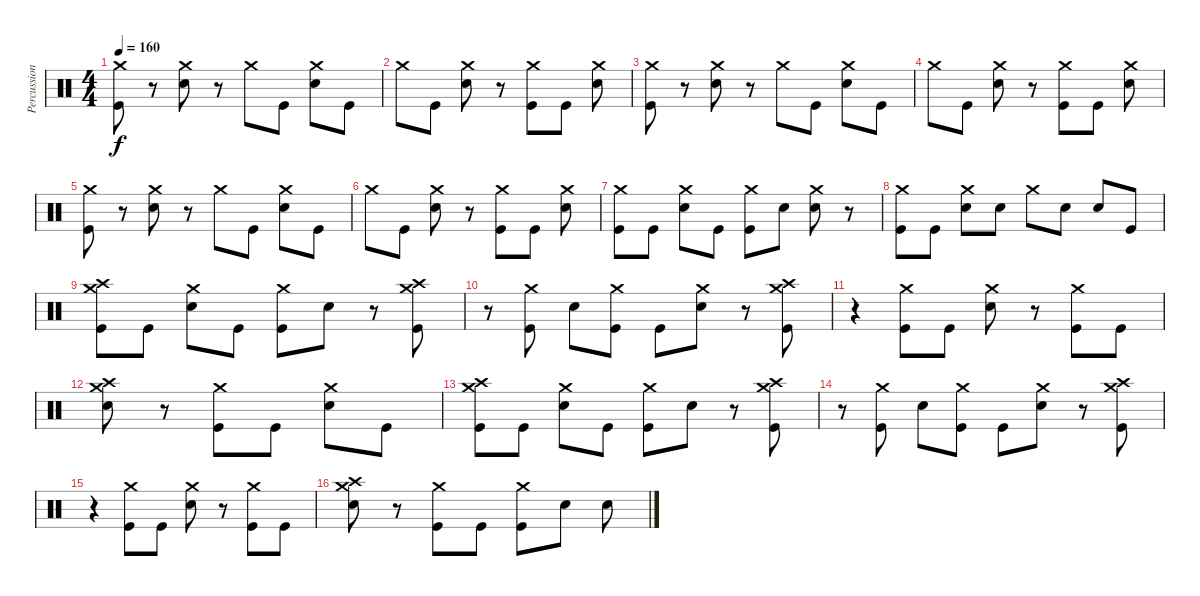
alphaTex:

\track ("Percussion" "Percussion") {instrument percussion}
\staff {score}
\articulation defaults
\ts (4 4)
\tempo 160
\clef neutral
\ks c
("Crash medium (hit)" "Kick (hit)").8{dy f} r.8 ("Crash medium (hit)" "Electric Snare (hit)").8 r.8 "Crash medium (hit)".8 "Kick (hit)".8 ("Crash medium (hit)" "Electric Snare (hit)").8 "Kick (hit)".8 |
"Crash medium (hit)".8 "Kick (hit)".8 ("Crash medium (hit)" "Electric Snare (hit)").8 r.8 ("Crash medium (hit)" "Kick (hit)").8 "Kick (hit)".8 ("Crash medium (hit)" "Electric Snare (hit)").8 |
("Crash medium (hit)" "Kick (hit)").8 r.8 ("Crash medium (hit)" "Electric Snare (hit)").8 r.8 "Crash medium (hit)".8 "Kick (hit)".8 ("Crash medium (hit)" "Electric Snare (hit)").8 "Kick (hit)".8 |
"Crash medium (hit)".8 "Kick (hit)".8 ("Crash medium (hit)" "Electric Snare (hit)").8 r.8 ("Crash medium (hit)" "Kick (hit)").8 "Kick (hit)".8 ("Crash medium (hit)" "Electric Snare (hit)").8 |
("Crash medium (hit)" "Kick (hit)").8 r.8 ("Crash medium (hit)" "Electric Snare (hit)").8 r.8 "Crash medium (hit)".8 "Kick (hit)".8 ("Crash medium (hit)" "Electric Snare (hit)").8 "Kick (hit)".8 |
"Crash medium (hit)".8 "Kick (hit)".8 ("Crash medium (hit)" "Electric Snare (hit)").8 r.8 ("Crash medium (hit)" "Kick (hit)").8 "Kick (hit)".8 ("Crash medium (hit)" "Electric Snare (hit)").8 |
("Crash medium (hit)" "Kick (hit)").8 "Kick (hit)".8 ("Crash medium (hit)" "Electric Snare (hit)").8 "Kick (hit)".8 ("Crash medium (hit)" "Kick (hit)").8 "Electric Snare (hit)".8 ("Crash medium (hit)" "Electric Snare (hit)").8 r.8 |
("Crash medium (hit)" "Kick (hit)").8 "Kick (hit)".8 ("Crash medium (hit)" "Electric Snare (hit)").8 "Electric Snare (hit)".8 "Crash medium (hit)".8 "Electric Snare (hit)".8 "Electric Snare (hit)".8 "Kick (hit)".8 |
("Crash high (hit)" "Crash medium (hit)" "Kick (hit)").8 "Kick (hit)".8 ("Crash medium (hit)" "Electric Snare (hit)").8 "Kick (hit)".8 ("Crash medium (hit)" "Kick (hit)").8 "Electric Snare (hit)".8 r.8 ("Crash high (hit)" "Crash medium (hit)" "Kick (hit)").8 |
r.8 ("Crash medium (hit)" "Kick (hit)").8 "Electric Snare (hit)".8 ("Crash medium (hit)" "Kick (hit)").8 "Kick (hit)".8 ("Crash medium (hit)" "Electric Snare (hit)").8 r.8 ("Crash high (hit)" "Crash medium (hit)" "Kick (hit)").8 |
r.4 ("Crash medium (hit)" "Kick (hit)").8 "Kick (hit)".8 ("Crash medium (hit)" "Electric Snare (hit)").8 r.8 ("Crash medium (hit)" "Kick (hit)").8 "Kick (hit)".8 |
("Crash high (hit)" "Crash medium (hit)" "Electric Snare (hit)").8 r.8 ("Crash medium (hit)" "Kick (hit)").8 "Kick (hit)".8 ("Crash medium (hit)" "Electric Snare (hit)").8 "Kick (hit)".8 |
("Crash high (hit)" "Crash medium (hit)" "Kick (hit)").8 "Kick (hit)".8 ("Crash medium (hit)" "Electric Snare (hit)").8 "Kick (hit)".8 ("Crash medium (hit)" "Kick (hit)").8 "Electric Snare (hit)".8 r.8 ("Crash high (hit)" "Crash medium (hit)" "Kick (hit)").8 |
r.8 ("Crash medium (hit)" "Kick (hit)").8 "Electric Snare (hit)".8 ("Crash medium (hit)" "Kick (hit)").8 "Kick (hit)".8 ("Crash medium (hit)" "Electric Snare (hit)").8 r.8 ("Crash high (hit)" "Crash medium (hit)" "Kick (hit)").8 |
r.4 ("Crash medium (hit)" "Kick (hit)").8 "Kick (hit)".8 ("Crash medium (hit)" "Electric Snare (hit)").8 r.8 ("Crash medium (hit)" "Kick (hit)").8 "Kick (hit)".8 |
("Crash high (hit)" "Crash medium (hit)" "Electric Snare (hit)").8 r.8 ("Crash medium (hit)" "Kick (hit)").8 "Kick (hit)".8 ("Crash medium (hit)" "Kick (hit)").8 "Electric Snare (hit)".8 "Electric Snare (hit)".8
